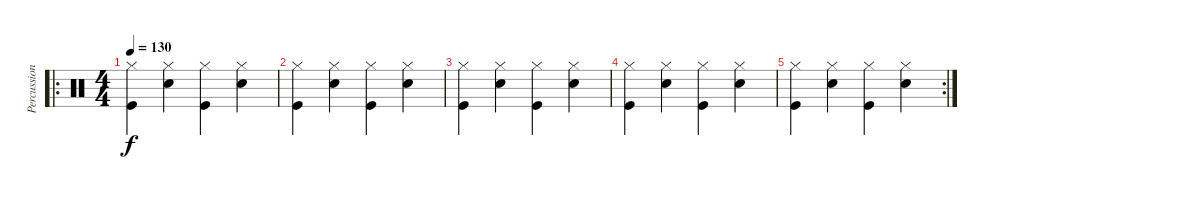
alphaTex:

\track ("Percussion" "Percussion") {instrument percussion}
\staff {score}
\articulation defaults
\ro
\ts (4 4)
\tempo 130
\clef neutral
\ks c
("Hi-Hat (closed)" "Kick (hit)").4{dy f} ("Hi-Hat (closed)" "Snare (hit) 2").4 ("Hi-Hat (closed)" "Kick (hit)").4 ("Hi-Hat (closed)" "Snare (hit) 2").4 |
("Hi-Hat (closed)" "Kick (hit)").4 ("Hi-Hat (closed)" "Snare (hit) 2").4 ("Hi-Hat (closed)" "Kick (hit)").4 ("Hi-Hat (closed)" "Snare (hit) 2").4 |
("Hi-Hat (closed)" "Kick (hit)").4 ("Hi-Hat (closed)" "Snare (hit) 2").4 ("Hi-Hat (closed)" "Kick (hit)").4 ("Hi-Hat (closed)" "Snare (hit) 2").4 |
("Hi-Hat (closed)" "Kick (hit)").4 ("Hi-Hat (closed)" "Snare (hit) 2").4 ("Hi-Hat (closed)" "Kick (hit)").4 ("Hi-Hat (closed)" "Snare (hit) 2").4 |
\rc 2
("Hi-Hat (closed)" "Kick (hit)").4 ("Hi-Hat (closed)" "Snare (hit) 2").4 ("Hi-Hat (closed)" "Kick (hit)").4 ("Hi-Hat (closed)" "Snare (hit) 2").4
